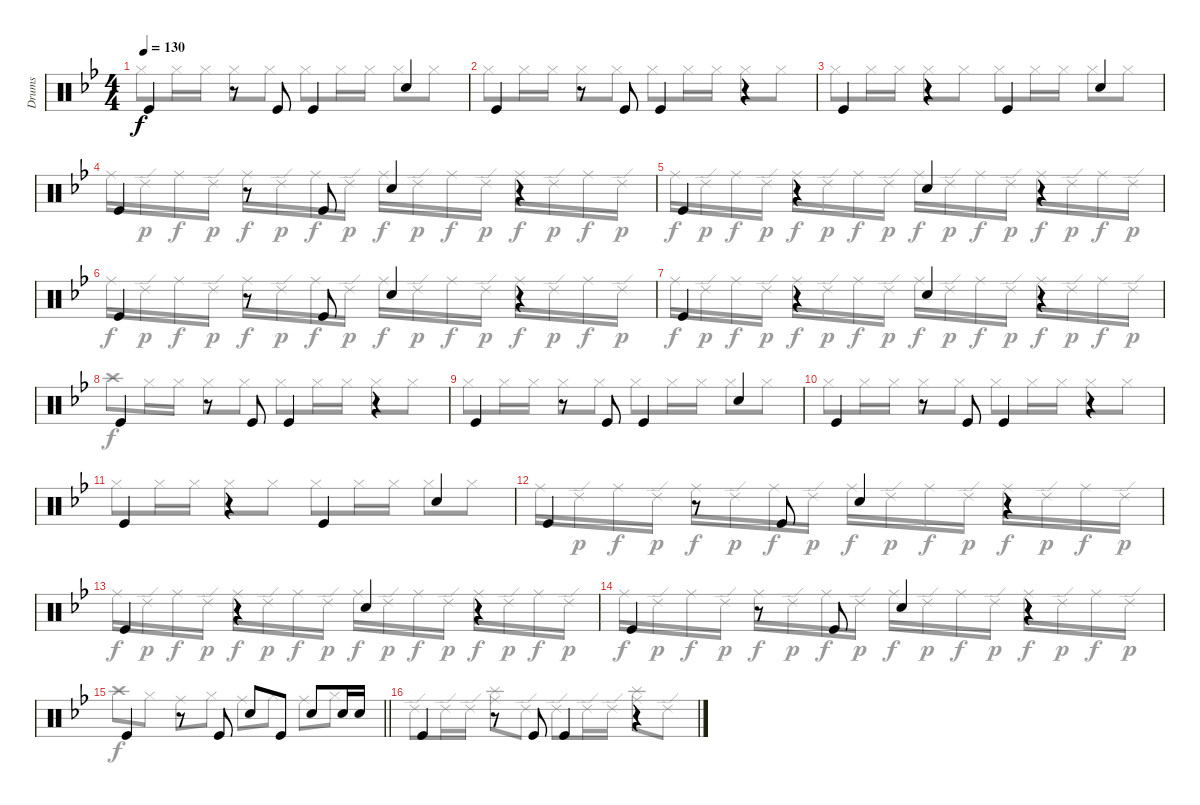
\track ("Drums" "Drums") {instrument percussion}
\staff {score}
\articulation defaults
\voice
\ts (4 4)
\tempo 130
\clef neutral
\ks gminor "Kick (hit)".4{dy f}
r.8 "Kick (hit)".8 "Kick (hit)".4 "Snare (hit) 2".4 |
"Kick (hit)".4 r.8 "Kick (hit)".8 "Kick (hit)".4 r.4 |
"Kick (hit)".4 r.4 "Kick (hit)".4 "Snare (hit) 2".4 |
"Kick (hit)".4 r.8 "Kick (hit)".8 "Snare (hit) 2".4 r.4 |
"Kick (hit)".4 r.4 "Snare (hit) 2".4 r.4 |
"Kick (hit)".4 r.8 "Kick (hit)".8 "Snare (hit) 2".4 r.4 |
"Kick (hit)".4 r.4 "Snare (hit) 2".4 r.4 |
"Kick (hit)".4 r.8 "Kick (hit)".8 "Kick (hit)".4 r.4 |
"Kick (hit)".4 r.8 "Kick (hit)".8 "Kick (hit)".4 "Snare (hit) 2".4 |
"Kick (hit)".4 r.8 "Kick (hit)".8 "Kick (hit)".4 r.4 |
"Kick (hit)".4 r.4 "Kick (hit)".4 "Snare (hit) 2".4 |
"Kick (hit)".4 r.8 "Kick (hit)".8 "Snare (hit) 2".4 r.4 |
"Kick (hit)".4 r.4 "Snare (hit) 2".4 r.4 |
"Kick (hit)".4 r.8 "Kick (hit)".8 "Snare (hit) 2".4 r.4 |
\barLineRight lightlight "Kick (hit)".4
r.8 "Kick (hit)".8 "Snare (hit) 2".8 "Kick (hit)".8 "Snare (hit) 2".8 "Snare (hit) 2".16 "Snare (hit) 2".16 |
"Kick (hit)".4 r.8 "Kick (hit)".8 "Kick (hit)".4 r.4
\voice
\clef neutral
\ottava regular
\simile none
\ks gminor "Hi-Hat (closed)".8{dy f} "Hi-Hat (closed)".16 "Hi-Hat (closed)".16 "Hi-Hat (closed)".8 "Hi-Hat (closed)".8 "Hi-Hat (closed)".8 "Hi-Hat (closed)".16 "Hi-Hat (closed)".16 "Hi-Hat (closed)".8 "Hi-Hat (closed)".8
|
"Hi-Hat (closed)".8 "Hi-Hat (closed)".16 "Hi-Hat (closed)".16 "Hi-Hat (closed)".8 "Hi-Hat (closed)".8 "Hi-Hat (closed)".8 "Hi-Hat (closed)".16 "Hi-Hat (closed)".16 "Hi-Hat (closed)".8 "Hi-Hat (closed)".8 |
"Hi-Hat (closed)".8 "Hi-Hat (closed)".16 "Hi-Hat (closed)".16 "Hi-Hat (closed)".8 "Hi-Hat (closed)".8 "Hi-Hat (closed)".8 "Hi-Hat (closed)".16 "Hi-Hat (closed)".16 "Hi-Hat (closed)".8 "Hi-Hat (closed)".8 |
"Ride (middle)".16 "Ride (edge) 2".16{dy p} "Ride (middle)".16{dy f} "Ride (edge) 2".16{dy p} "Ride (middle)".16{dy f} "Ride (edge) 2".16{dy p} "Ride (middle)".16{dy f} "Ride (edge) 2".16{dy p} "Ride (middle)".16{dy f} "Ride (edge) 2".16{dy p} "Ride (middle)".16{dy f} "Ride (edge) 2".16{dy p} "Ride (middle)".16{dy f} "Ride (edge) 2".16{dy p} "Ride (middle)".16{dy f} "Ride (edge) 2".16{dy p} |
"Ride (middle)".16{dy f} "Ride (edge) 2".16{dy p} "Ride (middle)".16{dy f} "Ride (edge) 2".16{dy p} "Ride (middle)".16{dy f} "Ride (edge) 2".16{dy p} "Ride (middle)".16{dy f} "Ride (edge) 2".16{dy p} "Ride (middle)".16{dy f} "Ride (edge) 2".16{dy p} "Ride (middle)".16{dy f} "Ride (edge) 2".16{dy p} "Ride (middle)".16{dy f} "Ride (edge) 2".16{dy p} "Ride (middle)".16{dy f} "Ride (edge) 2".16{dy p} |
"Ride (middle)".16{dy f} "Ride (edge) 2".16{dy p} "Ride (middle)".16{dy f} "Ride (edge) 2".16{dy p} "Ride (middle)".16{dy f} "Ride (edge) 2".16{dy p} "Ride (middle)".16{dy f} "Ride (edge) 2".16{dy p} "Ride (middle)".16{dy f} "Ride (edge) 2".16{dy p} "Ride (middle)".16{dy f} "Ride (edge) 2".16{dy p} "Ride (middle)".16{dy f} "Ride (edge) 2".16{dy p} "Ride (middle)".16{dy f} "Ride (edge) 2".16{dy p} |
"Ride (middle)".16{dy f} "Ride (edge) 2".16{dy p} "Ride (middle)".16{dy f} "Ride (edge) 2".16{dy p} "Ride (middle)".16{dy f} "Ride (edge) 2".16{dy p} "Ride (middle)".16{dy f} "Ride (edge) 2".16{dy p} "Ride (middle)".16{dy f} "Ride (edge) 2".16{dy p} "Ride (middle)".16{dy f} "Ride (edge) 2".16{dy p} "Ride (middle)".16{dy f} "Ride (edge) 2".16{dy p} "Ride (middle)".16{dy f} "Ride (edge) 2".16{dy p} |
"Crash high (hit)".8{dy f} "Hi-Hat (closed)".16 "Hi-Hat (closed)".16 "Hi-Hat (closed)".8 "Hi-Hat (closed)".8 "Hi-Hat (closed)".8 "Hi-Hat (closed)".16 "Hi-Hat (closed)".16 "Hi-Hat (closed)".8 "Hi-Hat (closed)".8 |
"Hi-Hat (closed)".8 "Hi-Hat (closed)".16 "Hi-Hat (closed)".16 "Hi-Hat (closed)".8 "Hi-Hat (closed)".8 "Hi-Hat (closed)".8 "Hi-Hat (closed)".16 "Hi-Hat (closed)".16 "Hi-Hat (closed)".8 "Hi-Hat (closed)".8 |
"Hi-Hat (closed)".8 "Hi-Hat (closed)".16 "Hi-Hat (closed)".16 "Hi-Hat (closed)".8 "Hi-Hat (closed)".8 "Hi-Hat (closed)".8 "Hi-Hat (closed)".16 "Hi-Hat (closed)".16 "Hi-Hat (closed)".8 "Hi-Hat (closed)".8 |
"Hi-Hat (closed)".8 "Hi-Hat (closed)".16 "Hi-Hat (closed)".16 "Hi-Hat (closed)".8 "Hi-Hat (closed)".8 "Hi-Hat (closed)".8 "Hi-Hat (closed)".16 "Hi-Hat (closed)".16 "Hi-Hat (closed)".8 "Hi-Hat (closed)".8 |
"Ride (middle)".16 "Ride (edge) 2".16{dy p} "Ride (middle)".16{dy f} "Ride (edge) 2".16{dy p} "Ride (middle)".16{dy f} "Ride (edge) 2".16{dy p} "Ride (middle)".16{dy f} "Ride (edge) 2".16{dy p} "Ride (middle)".16{dy f} "Ride (edge) 2".16{dy p} "Ride (middle)".16{dy f} "Ride (edge) 2".16{dy p} "Ride (middle)".16{dy f} "Ride (edge) 2".16{dy p} "Ride (middle)".16{dy f} "Ride (edge) 2".16{dy p} |
"Ride (middle)".16{dy f} "Ride (edge) 2".16{dy p} "Ride (middle)".16{dy f} "Ride (edge) 2".16{dy p} "Ride (middle)".16{dy f} "Ride (edge) 2".16{dy p} "Ride (middle)".16{dy f} "Ride (edge) 2".16{dy p} "Ride (middle)".16{dy f} "Ride (edge) 2".16{dy p} "Ride (middle)".16{dy f} "Ride (edge) 2".16{dy p} "Ride (middle)".16{dy f} "Ride (edge) 2".16{dy p} "Ride (middle)".16{dy f} "Ride (edge) 2".16{dy p} |
"Ride (middle)".16{dy f} "Ride (edge) 2".16{dy p} "Ride (middle)".16{dy f} "Ride (edge) 2".16{dy p} "Ride (middle)".16{dy f} "Ride (edge) 2".16{dy p} "Ride (middle)".16{dy f} "Ride (edge) 2".16{dy p} "Ride (middle)".16{dy f} "Ride (edge) 2".16{dy p} "Ride (middle)".16{dy f} "Ride (edge) 2".16{dy p} "Ride (middle)".16{dy f} "Ride (edge) 2".16{dy p} "Ride (middle)".16{dy f} "Ride (edge) 2".16{dy p} |
\barLineRight lightlight "Crash high (hit)".8{dy f} "Hi-Hat (closed)".8 "Ride (middle)".8 "Hi-Hat (closed)".8 "Ride (middle)".8 "Hi-Hat (closed)".8 "Ride (middle)".8 "Hi-Hat (closed)".8
|
"Ride (edge) 2".8 "Ride (edge) 2".16 "Ride (edge) 2".16 ("Ride (middle)" "Splash (hit)").8 "Ride (edge) 2".8 "Ride (edge) 2".8 "Ride (edge) 2".16 "Ride (edge) 2".16 ("Ride (middle)" "Splash (hit)").8 "Ride (edge) 2".8
